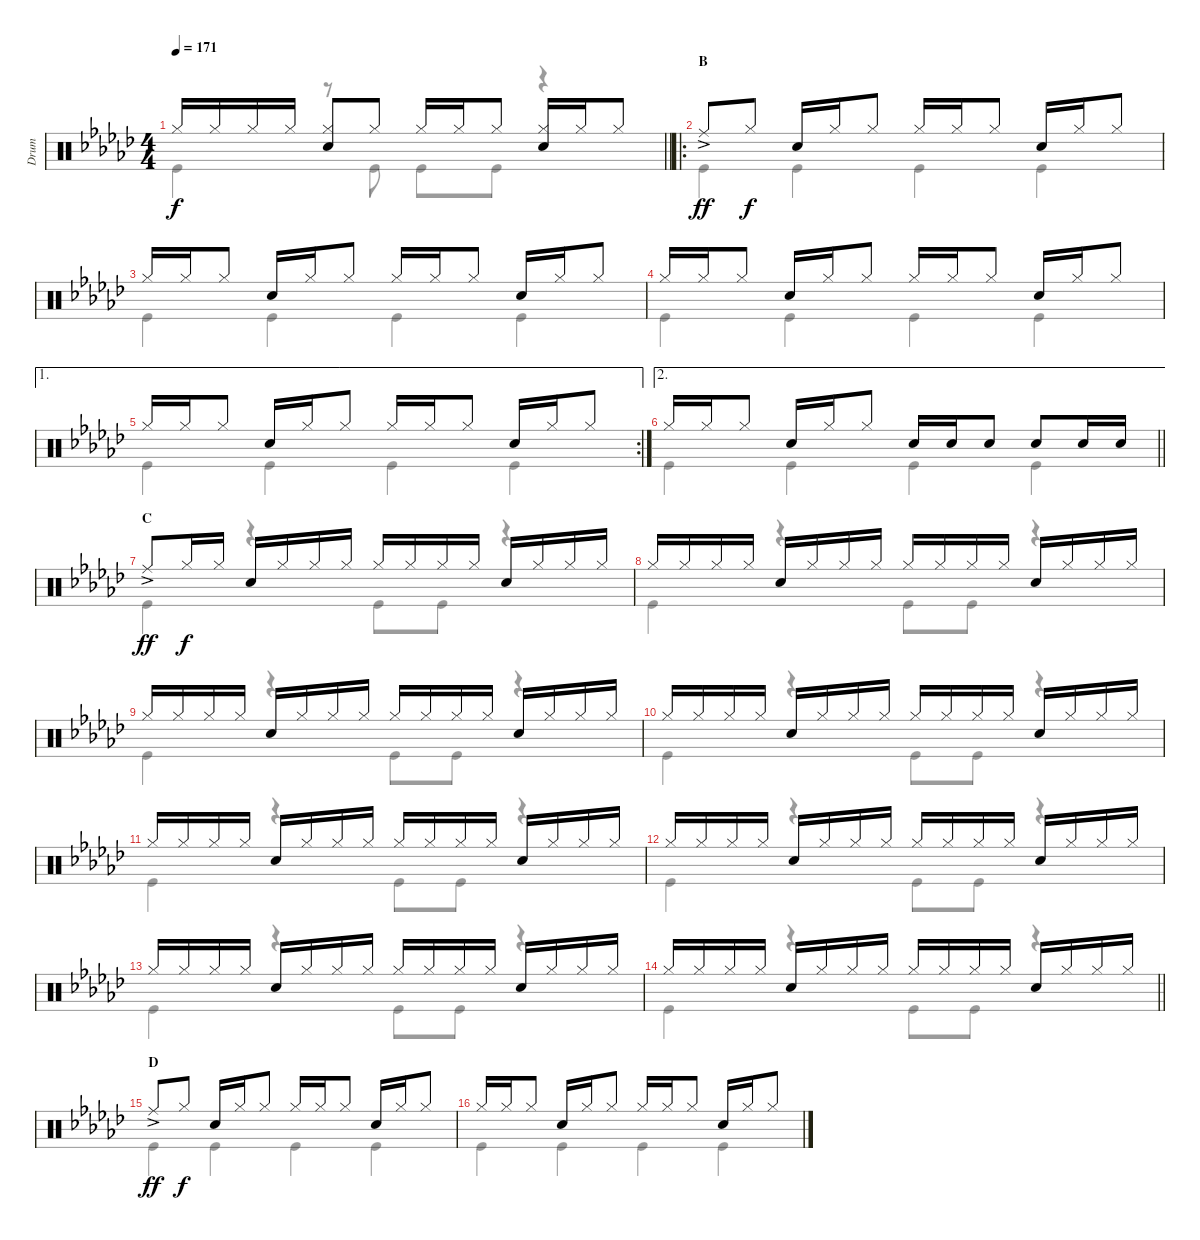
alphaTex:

\track ("Drum" "Drum") {instrument percussion}
\staff {score}
\articulation defaults
\voice
\ts (4 4)
\tempo 171
\clef neutral
\barLineRight lightlight
\ks gb "Hi-Hat (closed)".16{dy f} "Hi-Hat (closed)".16 "Hi-Hat (closed)".16 "Hi-Hat (closed)".16
("Snare (hit) 2" "Hi-Hat (closed)").8 "Hi-Hat (closed)".8 "Hi-Hat (closed)".16 "Hi-Hat (closed)".16 "Hi-Hat (closed)".8 ("Snare (hit) 2" "Hi-Hat (closed)").16 "Hi-Hat (closed)".16 "Hi-Hat (closed)".8 |
\ro
\section ("" "B")
"Ride (middle)"{ac}.8{dy ff} "Hi-Hat (closed)".8{dy f} "Snare (hit) 2".16 "Hi-Hat (closed)".16 "Hi-Hat (closed)".8 "Hi-Hat (closed)".16 "Hi-Hat (closed)".16 "Hi-Hat (closed)".8 "Snare (hit) 2".16 "Hi-Hat (closed)".16 "Hi-Hat (closed)".8 |
"Hi-Hat (closed)".16 "Hi-Hat (closed)".16 "Hi-Hat (closed)".8 "Snare (hit) 2".16 "Hi-Hat (closed)".16 "Hi-Hat (closed)".8 "Hi-Hat (closed)".16 "Hi-Hat (closed)".16 "Hi-Hat (closed)".8 "Snare (hit) 2".16 "Hi-Hat (closed)".16 "Hi-Hat (closed)".8 |
"Hi-Hat (closed)".16 "Hi-Hat (closed)".16 "Hi-Hat (closed)".8 "Snare (hit) 2".16 "Hi-Hat (closed)".16 "Hi-Hat (closed)".8 "Hi-Hat (closed)".16 "Hi-Hat (closed)".16 "Hi-Hat (closed)".8 "Snare (hit) 2".16 "Hi-Hat (closed)".16 "Hi-Hat (closed)".8 |
\ae 1
\rc 2 "Hi-Hat (closed)".16 "Hi-Hat (closed)".16 "Hi-Hat (closed)".8 "Snare (hit) 2".16 "Hi-Hat (closed)".16 "Hi-Hat (closed)".8 "Hi-Hat (closed)".16 "Hi-Hat (closed)".16 "Hi-Hat (closed)".8 "Snare (hit) 2".16 "Hi-Hat (closed)".16 "Hi-Hat (closed)".8
|
\ae 2
\barLineRight lightlight "Hi-Hat (closed)".16 "Hi-Hat (closed)".16 "Hi-Hat (closed)".8 "Snare (hit) 2".16 "Hi-Hat (closed)".16 "Hi-Hat (closed)".8 "Snare (hit) 2".16 "Snare (hit) 2".16 "Snare (hit) 2".8 "Snare (hit) 2".8 "Snare (hit) 2".16 "Snare (hit) 2".16
|
\section ("" "C")
"Ride (middle)"{ac}.8{dy ff} "Hi-Hat (closed)".16{dy f} "Hi-Hat (closed)".16 "Snare (hit) 2".16 "Hi-Hat (closed)".16 "Hi-Hat (closed)".16 "Hi-Hat (closed)".16 "Hi-Hat (closed)".16 "Hi-Hat (closed)".16 "Hi-Hat (closed)".16 "Hi-Hat (closed)".16 "Snare (hit) 2".16 "Hi-Hat (closed)".16 "Hi-Hat (closed)".16 "Hi-Hat (closed)".16 |
"Hi-Hat (closed)".16 "Hi-Hat (closed)".16 "Hi-Hat (closed)".16 "Hi-Hat (closed)".16 "Snare (hit) 2".16 "Hi-Hat (closed)".16 "Hi-Hat (closed)".16 "Hi-Hat (closed)".16 "Hi-Hat (closed)".16 "Hi-Hat (closed)".16 "Hi-Hat (closed)".16 "Hi-Hat (closed)".16 "Snare (hit) 2".16 "Hi-Hat (closed)".16 "Hi-Hat (closed)".16 "Hi-Hat (closed)".16 |
"Hi-Hat (closed)".16 "Hi-Hat (closed)".16 "Hi-Hat (closed)".16 "Hi-Hat (closed)".16 "Snare (hit) 2".16 "Hi-Hat (closed)".16 "Hi-Hat (closed)".16 "Hi-Hat (closed)".16 "Hi-Hat (closed)".16 "Hi-Hat (closed)".16 "Hi-Hat (closed)".16 "Hi-Hat (closed)".16 "Snare (hit) 2".16 "Hi-Hat (closed)".16 "Hi-Hat (closed)".16 "Hi-Hat (closed)".16 |
"Hi-Hat (closed)".16 "Hi-Hat (closed)".16 "Hi-Hat (closed)".16 "Hi-Hat (closed)".16 "Snare (hit) 2".16 "Hi-Hat (closed)".16 "Hi-Hat (closed)".16 "Hi-Hat (closed)".16 "Hi-Hat (closed)".16 "Hi-Hat (closed)".16 "Hi-Hat (closed)".16 "Hi-Hat (closed)".16 "Snare (hit) 2".16 "Hi-Hat (closed)".16 "Hi-Hat (closed)".16 "Hi-Hat (closed)".16 |
"Hi-Hat (closed)".16 "Hi-Hat (closed)".16 "Hi-Hat (closed)".16 "Hi-Hat (closed)".16 "Snare (hit) 2".16 "Hi-Hat (closed)".16 "Hi-Hat (closed)".16 "Hi-Hat (closed)".16 "Hi-Hat (closed)".16 "Hi-Hat (closed)".16 "Hi-Hat (closed)".16 "Hi-Hat (closed)".16 "Snare (hit) 2".16 "Hi-Hat (closed)".16 "Hi-Hat (closed)".16 "Hi-Hat (closed)".16 |
"Hi-Hat (closed)".16 "Hi-Hat (closed)".16 "Hi-Hat (closed)".16 "Hi-Hat (closed)".16 "Snare (hit) 2".16 "Hi-Hat (closed)".16 "Hi-Hat (closed)".16 "Hi-Hat (closed)".16 "Hi-Hat (closed)".16 "Hi-Hat (closed)".16 "Hi-Hat (closed)".16 "Hi-Hat (closed)".16 "Snare (hit) 2".16 "Hi-Hat (closed)".16 "Hi-Hat (closed)".16 "Hi-Hat (closed)".16 |
"Hi-Hat (closed)".16 "Hi-Hat (closed)".16 "Hi-Hat (closed)".16 "Hi-Hat (closed)".16 "Snare (hit) 2".16 "Hi-Hat (closed)".16 "Hi-Hat (closed)".16 "Hi-Hat (closed)".16 "Hi-Hat (closed)".16 "Hi-Hat (closed)".16 "Hi-Hat (closed)".16 "Hi-Hat (closed)".16 "Snare (hit) 2".16 "Hi-Hat (closed)".16 "Hi-Hat (closed)".16 "Hi-Hat (closed)".16 |
\barLineRight lightlight "Hi-Hat (closed)".16 "Hi-Hat (closed)".16 "Hi-Hat (closed)".16 "Hi-Hat (closed)".16 "Snare (hit) 2".16 "Hi-Hat (closed)".16 "Hi-Hat (closed)".16 "Hi-Hat (closed)".16 "Hi-Hat (closed)".16 "Hi-Hat (closed)".16 "Hi-Hat (closed)".16 "Hi-Hat (closed)".16 "Snare (hit) 2".16 "Hi-Hat (closed)".16 "Hi-Hat (closed)".16 "Hi-Hat (closed)".16
|
\section ("" "D")
"Ride (middle)"{ac}.8{dy ff} "Hi-Hat (closed)".8{dy f} "Snare (hit) 2".16 "Hi-Hat (closed)".16 "Hi-Hat (closed)".8 "Hi-Hat (closed)".16 "Hi-Hat (closed)".16 "Hi-Hat (closed)".8 "Snare (hit) 2".16 "Hi-Hat (closed)".16 "Hi-Hat (closed)".8 |
"Hi-Hat (closed)".16 "Hi-Hat (closed)".16 "Hi-Hat (closed)".8 "Snare (hit) 2".16 "Hi-Hat (closed)".16 "Hi-Hat (closed)".8 "Hi-Hat (closed)".16 "Hi-Hat (closed)".16 "Hi-Hat (closed)".8 "Snare (hit) 2".16 "Hi-Hat (closed)".16 "Hi-Hat (closed)".8
\voice
\clef neutral
\ottava regular
\simile none
\barLineRight lightlight
\ks gb "Kick (hit)".4{dy f}
r.8 "Kick (hit)".8 "Kick (hit)".8 "Kick (hit)".8 r.4 |
"Kick (hit)".4 "Kick (hit)".4 "Kick (hit)".4 "Kick (hit)".4 |
"Kick (hit)".4 "Kick (hit)".4 "Kick (hit)".4 "Kick (hit)".4 |
"Kick (hit)".4 "Kick (hit)".4 "Kick (hit)".4 "Kick (hit)".4 |
"Kick (hit)".4 "Kick (hit)".4 "Kick (hit)".4 "Kick (hit)".4 |
\barLineRight lightlight "Kick (hit)".4 "Kick (hit)".4 "Kick (hit)".4 "Kick (hit)".4
|
"Kick (hit)".4 r.4 "Kick (hit)".8 "Kick (hit)".8 r.4 |
"Kick (hit)".4 r.4 "Kick (hit)".8 "Kick (hit)".8 r.4 |
"Kick (hit)".4 r.4 "Kick (hit)".8 "Kick (hit)".8 r.4 |
"Kick (hit)".4 r.4 "Kick (hit)".8 "Kick (hit)".8 r.4 |
"Kick (hit)".4 r.4 "Kick (hit)".8 "Kick (hit)".8 r.4 |
"Kick (hit)".4 r.4 "Kick (hit)".8 "Kick (hit)".8 r.4 |
"Kick (hit)".4 r.4 "Kick (hit)".8 "Kick (hit)".8 r.4 |
\barLineRight lightlight "Kick (hit)".4
r.4 "Kick (hit)".8 "Kick (hit)".8 r.4 |
"Kick (hit)".4 "Kick (hit)".4 "Kick (hit)".4 "Kick (hit)".4 |
"Kick (hit)".4 "Kick (hit)".4 "Kick (hit)".4 "Kick (hit)".4
